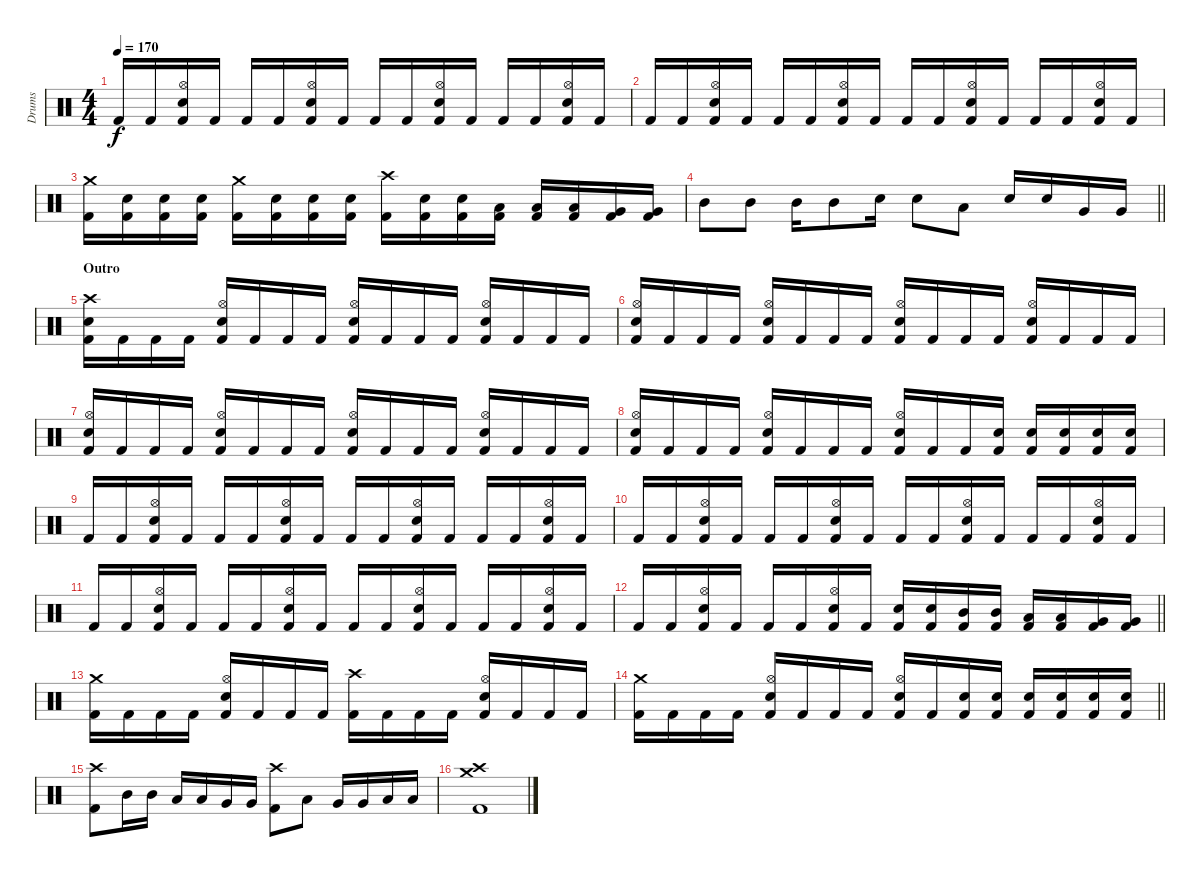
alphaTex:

\track ("Drums" "Drums") {instrument percussion}
\staff {score}
\articulation defaults
\ts (4 4)
\tempo 170
\clef neutral
\ks c "Kick (hit) 2".16{dy f} "Kick (hit) 2".16
("Hi-Hat (open)" "Electric Snare (hit)" "Kick (hit) 2").16 "Kick (hit) 2".16 "Kick (hit) 2".16 "Kick (hit) 2".16 ("Hi-Hat (open)" "Electric Snare (hit)" "Kick (hit) 2").16 "Kick (hit) 2".16 "Kick (hit) 2".16 "Kick (hit) 2".16 ("Hi-Hat (open)" "Electric Snare (hit)" "Kick (hit) 2").16 "Kick (hit) 2".16 "Kick (hit) 2".16 "Kick (hit) 2".16 ("Hi-Hat (open)" "Electric Snare (hit)" "Kick (hit) 2").16 "Kick (hit) 2".16 |
"Kick (hit) 2".16 "Kick (hit) 2".16 ("Hi-Hat (open)" "Electric Snare (hit)" "Kick (hit) 2").16 "Kick (hit) 2".16 "Kick (hit) 2".16 "Kick (hit) 2".16 ("Hi-Hat (open)" "Electric Snare (hit)" "Kick (hit) 2").16 "Kick (hit) 2".16 "Kick (hit) 2".16 "Kick (hit) 2".16 ("Hi-Hat (open)" "Electric Snare (hit)" "Kick (hit) 2").16 "Kick (hit) 2".16 "Kick (hit) 2".16 "Kick (hit) 2".16 ("Hi-Hat (open)" "Electric Snare (hit)" "Kick (hit) 2").16 "Kick (hit) 2".16 |
("Crash medium (hit)" "Kick (hit) 2").16 ("Electric Snare (hit)" "Kick (hit) 2").16 ("Electric Snare (hit)" "Kick (hit) 2").16 ("Electric Snare (hit)" "Kick (hit) 2").16 ("Crash medium (hit)" "Kick (hit) 2").16 ("Electric Snare (hit)" "Kick (hit) 2").16 ("Electric Snare (hit)" "Kick (hit) 2").16 ("Electric Snare (hit)" "Kick (hit) 2").16 ("Crash high (hit)" "Kick (hit) 2").16 ("Electric Snare (hit)" "Kick (hit) 2").16 ("Electric Snare (hit)" "Kick (hit) 2").16 ("Low Tom (hit)" "Kick (hit) 2").16 ("Low Tom (hit)" "Kick (hit) 2").16 ("Low Tom (hit)" "Kick (hit) 2").16 ("Very Low Tom (hit)" "Kick (hit) 2").16 ("Very Low Tom (hit)" "Kick (hit) 2").16 |
\barLineRight lightlight "Mid Tom (hit)".8 "Mid Tom (hit)".8 "Mid Tom (hit)".16 "Mid Tom (hit)".8 "Electric Snare (hit)".16 "Electric Snare (hit)".8 "Low Tom (hit)".8 "Electric Snare (hit)".16 "Electric Snare (hit)".16 "Very Low Tom (hit)".16 "Very Low Tom (hit)".16
|
\section ("" "Outro")
("Crash high (hit)" "Electric Snare (hit)" "Kick (hit) 2").16 "Kick (hit) 2".16 "Kick (hit) 2".16 "Kick (hit) 2".16 ("Hi-Hat (open)" "Electric Snare (hit)" "Kick (hit) 2").16 "Kick (hit) 2".16 "Kick (hit) 2".16 "Kick (hit) 2".16 ("Hi-Hat (open)" "Electric Snare (hit)" "Kick (hit) 2").16 "Kick (hit) 2".16 "Kick (hit) 2".16 "Kick (hit) 2".16 ("Hi-Hat (open)" "Electric Snare (hit)" "Kick (hit) 2").16 "Kick (hit) 2".16 "Kick (hit) 2".16 "Kick (hit) 2".16 |
("Hi-Hat (open)" "Electric Snare (hit)" "Kick (hit) 2").16 "Kick (hit) 2".16 "Kick (hit) 2".16 "Kick (hit) 2".16 ("Hi-Hat (open)" "Electric Snare (hit)" "Kick (hit) 2").16 "Kick (hit) 2".16 "Kick (hit) 2".16 "Kick (hit) 2".16 ("Hi-Hat (open)" "Electric Snare (hit)" "Kick (hit) 2").16 "Kick (hit) 2".16 "Kick (hit) 2".16 "Kick (hit) 2".16 ("Hi-Hat (open)" "Electric Snare (hit)" "Kick (hit) 2").16 "Kick (hit) 2".16 "Kick (hit) 2".16 "Kick (hit) 2".16 |
("Hi-Hat (open)" "Electric Snare (hit)" "Kick (hit) 2").16 "Kick (hit) 2".16 "Kick (hit) 2".16 "Kick (hit) 2".16 ("Hi-Hat (open)" "Electric Snare (hit)" "Kick (hit) 2").16 "Kick (hit) 2".16 "Kick (hit) 2".16 "Kick (hit) 2".16 ("Hi-Hat (open)" "Electric Snare (hit)" "Kick (hit) 2").16 "Kick (hit) 2".16 "Kick (hit) 2".16 "Kick (hit) 2".16 ("Hi-Hat (open)" "Electric Snare (hit)" "Kick (hit) 2").16 "Kick (hit) 2".16 "Kick (hit) 2".16 "Kick (hit) 2".16 |
("Hi-Hat (open)" "Electric Snare (hit)" "Kick (hit) 2").16 "Kick (hit) 2".16 "Kick (hit) 2".16 "Kick (hit) 2".16 ("Hi-Hat (open)" "Electric Snare (hit)" "Kick (hit) 2").16 "Kick (hit) 2".16 "Kick (hit) 2".16 "Kick (hit) 2".16 ("Hi-Hat (open)" "Electric Snare (hit)" "Kick (hit) 2").16 "Kick (hit) 2".16 "Kick (hit) 2".16 ("Electric Snare (hit)" "Kick (hit) 2").16 ("Electric Snare (hit)" "Kick (hit) 2").16 ("Electric Snare (hit)" "Kick (hit) 2").16 ("Electric Snare (hit)" "Kick (hit) 2").16 ("Electric Snare (hit)" "Kick (hit) 2").16 |
"Kick (hit) 2".16 "Kick (hit) 2".16 ("Hi-Hat (open)" "Electric Snare (hit)" "Kick (hit) 2").16 "Kick (hit) 2".16 "Kick (hit) 2".16 "Kick (hit) 2".16 ("Hi-Hat (open)" "Electric Snare (hit)" "Kick (hit) 2").16 "Kick (hit) 2".16 "Kick (hit) 2".16 "Kick (hit) 2".16 ("Hi-Hat (open)" "Electric Snare (hit)" "Kick (hit) 2").16 "Kick (hit) 2".16 "Kick (hit) 2".16 "Kick (hit) 2".16 ("Hi-Hat (open)" "Electric Snare (hit)" "Kick (hit) 2").16 "Kick (hit) 2".16 |
"Kick (hit) 2".16 "Kick (hit) 2".16 ("Hi-Hat (open)" "Electric Snare (hit)" "Kick (hit) 2").16 "Kick (hit) 2".16 "Kick (hit) 2".16 "Kick (hit) 2".16 ("Hi-Hat (open)" "Electric Snare (hit)" "Kick (hit) 2").16 "Kick (hit) 2".16 "Kick (hit) 2".16 "Kick (hit) 2".16 ("Hi-Hat (open)" "Electric Snare (hit)" "Kick (hit) 2").16 "Kick (hit) 2".16 "Kick (hit) 2".16 "Kick (hit) 2".16 ("Hi-Hat (open)" "Electric Snare (hit)" "Kick (hit) 2").16 "Kick (hit) 2".16 |
"Kick (hit) 2".16 "Kick (hit) 2".16 ("Hi-Hat (open)" "Electric Snare (hit)" "Kick (hit) 2").16 "Kick (hit) 2".16 "Kick (hit) 2".16 "Kick (hit) 2".16 ("Hi-Hat (open)" "Electric Snare (hit)" "Kick (hit) 2").16 "Kick (hit) 2".16 "Kick (hit) 2".16 "Kick (hit) 2".16 ("Hi-Hat (open)" "Electric Snare (hit)" "Kick (hit) 2").16 "Kick (hit) 2".16 "Kick (hit) 2".16 "Kick (hit) 2".16 ("Hi-Hat (open)" "Electric Snare (hit)" "Kick (hit) 2").16 "Kick (hit) 2".16 |
\barLineRight lightlight "Kick (hit) 2".16 "Kick (hit) 2".16
("Hi-Hat (open)" "Electric Snare (hit)" "Kick (hit) 2").16 "Kick (hit) 2".16 "Kick (hit) 2".16 "Kick (hit) 2".16 ("Hi-Hat (open)" "Electric Snare (hit)" "Kick (hit) 2").16 "Kick (hit) 2".16 ("Electric Snare (hit)" "Kick (hit) 2").16 ("Electric Snare (hit)" "Kick (hit) 2").16 ("Mid Tom (hit)" "Kick (hit) 2").16 ("Mid Tom (hit)" "Kick (hit) 2").16 ("Low Tom (hit)" "Kick (hit) 2").16 ("Low Tom (hit)" "Kick (hit) 2").16 ("Very Low Tom (hit)" "Kick (hit) 2").16 ("Very Low Tom (hit)" "Kick (hit) 2").16 |
("Crash medium (hit)" "Kick (hit) 2").16 "Kick (hit) 2".16 "Kick (hit) 2".16 "Kick (hit) 2".16 ("Hi-Hat (open)" "Electric Snare (hit)" "Kick (hit) 2").16 "Kick (hit) 2".16 "Kick (hit) 2".16 "Kick (hit) 2".16 ("Crash high (hit)" "Kick (hit) 2").16 "Kick (hit) 2".16 "Kick (hit) 2".16 "Kick (hit) 2".16 ("Hi-Hat (open)" "Electric Snare (hit)" "Kick (hit) 2").16 "Kick (hit) 2".16 "Kick (hit) 2".16 "Kick (hit) 2".16 |
\barLineRight lightlight
("Crash medium (hit)" "Kick (hit) 2").16 "Kick (hit) 2".16 "Kick (hit) 2".16 "Kick (hit) 2".16 ("Hi-Hat (open)" "Electric Snare (hit)" "Kick (hit) 2").16 "Kick (hit) 2".16 "Kick (hit) 2".16 "Kick (hit) 2".16 ("Hi-Hat (open)" "Electric Snare (hit)" "Kick (hit) 2").16 "Kick (hit) 2".16 ("Electric Snare (hit)" "Kick (hit) 2").16 ("Electric Snare (hit)" "Kick (hit) 2").16 ("Electric Snare (hit)" "Kick (hit) 2").16 ("Electric Snare (hit)" "Kick (hit) 2").16 ("Electric Snare (hit)" "Kick (hit) 2").16 ("Electric Snare (hit)" "Kick (hit) 2").16 |
("Crash high (hit)" "Kick (hit) 2").8 "Mid Tom (hit)".16 "Mid Tom (hit)".16 "Low Tom (hit)".16 "Low Tom (hit)".16 "Very Low Tom (hit)".16 "Very Low Tom (hit)".16 ("Crash high (hit)" "Kick (hit) 2").8 "Low Tom (hit)".8 "Very Low Tom (hit)".16 "Very Low Tom (hit)".16 "Low Floor Tom (hit)".16 "Low Floor Tom (hit)".16 |
("Crash medium (hit)" "Crash high (hit)" "Kick (hit) 2").1
